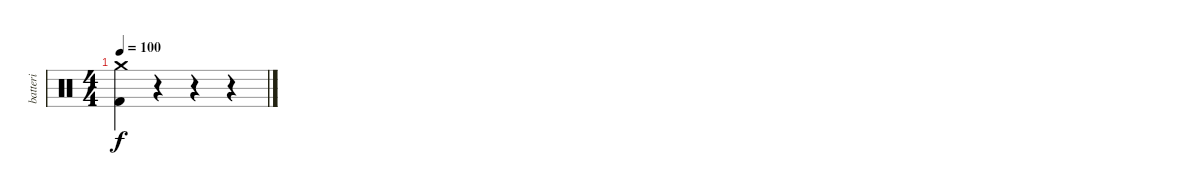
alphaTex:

\track ("batteri" "batteri") {instrument percussion}
\staff {score}
\articulation defaults
\ts (4 4)
\tempo 100
\clef neutral
\ks c
("Kick (hit) 2" "Crash medium (hit)").4{dy f} r.4 r.4 r.4
